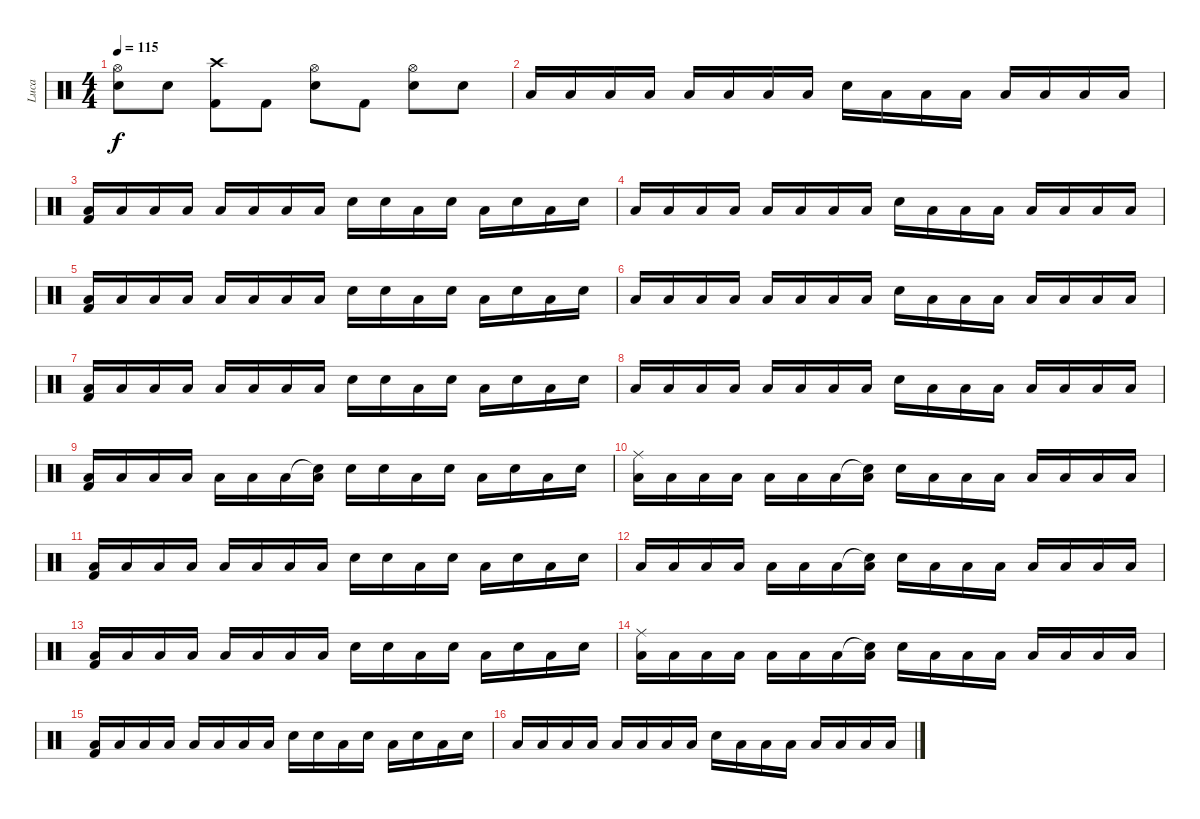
\track ("Luca" "Luca") {instrument percussion}
\staff {score}
\articulation defaults
\ts (4 4)
\tempo 115
\clef neutral
\ks c
("Hi-Hat (open)"{t} "Snare (hit)"{t}).8{dy f} "Snare (hit) 2".8 ("Crash high (hit)" "Kick (hit) 2").8 "Kick (hit) 2".8 ("Hi-Hat (open)" "Snare (hit) 2").8 "Kick (hit) 2".8 ("Hi-Hat (open)" "Snare (hit) 2").8 "Snare (hit) 2".8 |
"Low Floor Tom (hit)".16 "Low Floor Tom (hit)".16 "Low Floor Tom (hit)".16 "Low Floor Tom (hit)".16 "Low Floor Tom (hit)".16 "Low Floor Tom (hit)".16 "Low Floor Tom (hit)".16 "Low Floor Tom (hit)".16 "Snare (hit) 2".16 "Low Floor Tom (hit)".16 "Low Floor Tom (hit)".16 "Low Floor Tom (hit)".16 "Low Floor Tom (hit)".16 "Low Floor Tom (hit)".16 "Low Floor Tom (hit)".16 "Low Floor Tom (hit)".16 |
("Low Floor Tom (hit)" "Kick (hit) 2").16 "Low Floor Tom (hit)".16 "Low Floor Tom (hit)".16 "Low Floor Tom (hit)".16 "Low Floor Tom (hit)".16 "Low Floor Tom (hit)".16 "Low Floor Tom (hit)".16 "Low Floor Tom (hit)".16 "Snare (hit) 2".16 "Snare (hit) 2".16 "Low Floor Tom (hit)".16 "Snare (hit) 2".16 "Low Floor Tom (hit)".16 "Snare (hit) 2".16 "Low Floor Tom (hit)".16 "Snare (hit) 2".16 |
"Low Floor Tom (hit)".16 "Low Floor Tom (hit)".16 "Low Floor Tom (hit)".16 "Low Floor Tom (hit)".16 "Low Floor Tom (hit)".16 "Low Floor Tom (hit)".16 "Low Floor Tom (hit)".16 "Low Floor Tom (hit)".16 "Snare (hit) 2".16 "Low Floor Tom (hit)".16 "Low Floor Tom (hit)".16 "Low Floor Tom (hit)".16 "Low Floor Tom (hit)".16 "Low Floor Tom (hit)".16 "Low Floor Tom (hit)".16 "Low Floor Tom (hit)".16 |
("Low Floor Tom (hit)" "Kick (hit) 2").16 "Low Floor Tom (hit)".16 "Low Floor Tom (hit)".16 "Low Floor Tom (hit)".16 "Low Floor Tom (hit)".16 "Low Floor Tom (hit)".16 "Low Floor Tom (hit)".16 "Low Floor Tom (hit)".16 "Snare (hit) 2".16 "Snare (hit) 2".16 "Low Floor Tom (hit)".16 "Snare (hit) 2".16 "Low Floor Tom (hit)".16 "Snare (hit) 2".16 "Low Floor Tom (hit)".16 "Snare (hit) 2".16 |
"Low Floor Tom (hit)".16 "Low Floor Tom (hit)".16 "Low Floor Tom (hit)".16 "Low Floor Tom (hit)".16 "Low Floor Tom (hit)".16 "Low Floor Tom (hit)".16 "Low Floor Tom (hit)".16 "Low Floor Tom (hit)".16 "Snare (hit) 2".16 "Low Floor Tom (hit)".16 "Low Floor Tom (hit)".16 "Low Floor Tom (hit)".16 "Low Floor Tom (hit)".16 "Low Floor Tom (hit)".16 "Low Floor Tom (hit)".16 "Low Floor Tom (hit)".16 |
("Low Floor Tom (hit)" "Kick (hit) 2").16 "Low Floor Tom (hit)".16 "Low Floor Tom (hit)".16 "Low Floor Tom (hit)".16 "Low Floor Tom (hit)".16 "Low Floor Tom (hit)".16 "Low Floor Tom (hit)".16 "Low Floor Tom (hit)".16 "Snare (hit) 2".16 "Snare (hit) 2".16 "Low Floor Tom (hit)".16 "Snare (hit) 2".16 "Low Floor Tom (hit)".16 "Snare (hit) 2".16 "Low Floor Tom (hit)".16 "Snare (hit) 2".16 |
"Low Floor Tom (hit)".16 "Low Floor Tom (hit)".16 "Low Floor Tom (hit)".16 "Low Floor Tom (hit)".16 "Low Floor Tom (hit)".16 "Low Floor Tom (hit)".16 "Low Floor Tom (hit)".16 "Low Floor Tom (hit)".16 "Snare (hit) 2".16 "Low Floor Tom (hit)".16 "Low Floor Tom (hit)".16 "Low Floor Tom (hit)".16 "Low Floor Tom (hit)".16 "Low Floor Tom (hit)".16 "Low Floor Tom (hit)".16 "Low Floor Tom (hit)".16 |
("Low Floor Tom (hit)" "Kick (hit) 2").16 "Low Floor Tom (hit)".16 "Low Floor Tom (hit)".16 "Low Floor Tom (hit)".16 "Low Floor Tom (hit)".16 "Low Floor Tom (hit)".16 "Low Floor Tom (hit)".16 ("Snare (hit)"{t} "Low Floor Tom (hit)").16 "Snare (hit) 2".16 "Snare (hit) 2".16 "Low Floor Tom (hit)".16 "Snare (hit) 2".16 "Low Floor Tom (hit)".16 "Snare (hit) 2".16 "Low Floor Tom (hit)".16 "Snare (hit) 2".16 |
("Ride (middle)" "Low Floor Tom (hit)").16 "Low Floor Tom (hit)".16 "Low Floor Tom (hit)".16 "Low Floor Tom (hit)".16 "Low Floor Tom (hit)".16 "Low Floor Tom (hit)".16 "Low Floor Tom (hit)".16 ("Snare (hit)"{t} "Low Floor Tom (hit)").16 "Snare (hit) 2".16 "Low Floor Tom (hit)".16 "Low Floor Tom (hit)".16 "Low Floor Tom (hit)".16 "Low Floor Tom (hit)".16 "Low Floor Tom (hit)".16 "Low Floor Tom (hit)".16 "Low Floor Tom (hit)".16 |
("Low Floor Tom (hit)" "Kick (hit) 2").16 "Low Floor Tom (hit)".16 "Low Floor Tom (hit)".16 "Low Floor Tom (hit)".16 "Low Floor Tom (hit)".16 "Low Floor Tom (hit)".16 "Low Floor Tom (hit)".16 "Low Floor Tom (hit)".16 "Snare (hit) 2".16 "Snare (hit) 2".16 "Low Floor Tom (hit)".16 "Snare (hit) 2".16 "Low Floor Tom (hit)".16 "Snare (hit) 2".16 "Low Floor Tom (hit)".16 "Snare (hit) 2".16 |
"Low Floor Tom (hit)".16 "Low Floor Tom (hit)".16 "Low Floor Tom (hit)".16 "Low Floor Tom (hit)".16 "Low Floor Tom (hit)".16 "Low Floor Tom (hit)".16 "Low Floor Tom (hit)".16 ("Snare (hit)"{t} "Low Floor Tom (hit)").16 "Snare (hit) 2".16 "Low Floor Tom (hit)".16 "Low Floor Tom (hit)".16 "Low Floor Tom (hit)".16 "Low Floor Tom (hit)".16 "Low Floor Tom (hit)".16 "Low Floor Tom (hit)".16 "Low Floor Tom (hit)".16 |
("Low Floor Tom (hit)" "Kick (hit) 2").16 "Low Floor Tom (hit)".16 "Low Floor Tom (hit)".16 "Low Floor Tom (hit)".16 "Low Floor Tom (hit)".16 "Low Floor Tom (hit)".16 "Low Floor Tom (hit)".16 "Low Floor Tom (hit)".16 "Snare (hit) 2".16 "Snare (hit) 2".16 "Low Floor Tom (hit)".16 "Snare (hit) 2".16 "Low Floor Tom (hit)".16 "Snare (hit) 2".16 "Low Floor Tom (hit)".16 "Snare (hit) 2".16 |
("Ride (middle)" "Low Floor Tom (hit)").16 "Low Floor Tom (hit)".16 "Low Floor Tom (hit)".16 "Low Floor Tom (hit)".16 "Low Floor Tom (hit)".16 "Low Floor Tom (hit)".16 "Low Floor Tom (hit)".16 ("Snare (hit)"{t} "Low Floor Tom (hit)").16 "Snare (hit) 2".16 "Low Floor Tom (hit)".16 "Low Floor Tom (hit)".16 "Low Floor Tom (hit)".16 "Low Floor Tom (hit)".16 "Low Floor Tom (hit)".16 "Low Floor Tom (hit)".16 "Low Floor Tom (hit)".16 |
("Low Floor Tom (hit)" "Kick (hit) 2").16 "Low Floor Tom (hit)".16 "Low Floor Tom (hit)".16 "Low Floor Tom (hit)".16 "Low Floor Tom (hit)".16 "Low Floor Tom (hit)".16 "Low Floor Tom (hit)".16 "Low Floor Tom (hit)".16 "Snare (hit) 2".16 "Snare (hit) 2".16 "Low Floor Tom (hit)".16 "Snare (hit) 2".16 "Low Floor Tom (hit)".16 "Snare (hit) 2".16 "Low Floor Tom (hit)".16 "Snare (hit) 2".16 |
"Low Floor Tom (hit)".16 "Low Floor Tom (hit)".16 "Low Floor Tom (hit)".16 "Low Floor Tom (hit)".16 "Low Floor Tom (hit)".16 "Low Floor Tom (hit)".16 "Low Floor Tom (hit)".16 "Low Floor Tom (hit)".16 "Snare (hit) 2".16 "Low Floor Tom (hit)".16 "Low Floor Tom (hit)".16 "Low Floor Tom (hit)".16 "Low Floor Tom (hit)".16 "Low Floor Tom (hit)".16 "Low Floor Tom (hit)".16 "Low Floor Tom (hit)".16
